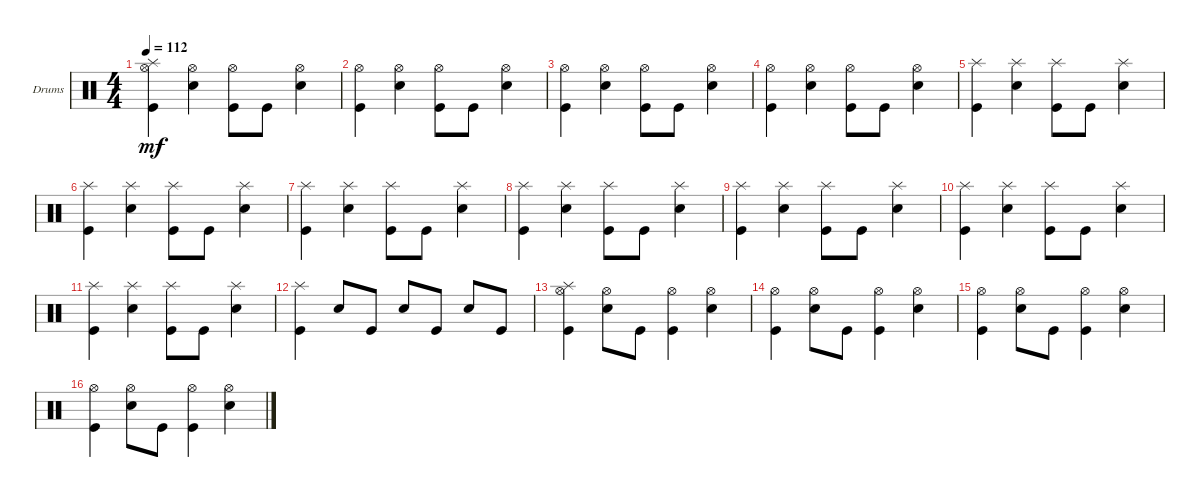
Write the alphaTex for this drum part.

\defaultSystemsLayout 4
\bracketExtendMode groupsimilarinstruments
\firstSystemTrackNameOrientation horizontal
\otherSystemsTrackNameOrientation horizontal
\track ("Drumkit" "Drums") {instrument percussion}
\staff {score}
\articulation defaults
\ts (4 4)
\tempo 112
\clef neutral
\ks c
("Kick (hit)" "Hi-Hat (open)" "Splash (hit)").4{dy mf} ("Hi-Hat (open)" "Snare (hit) 2").4 ("Hi-Hat (open)" "Kick (hit)").8 "Kick (hit)".8 ("Hi-Hat (open)" "Snare (hit) 2").4 |
("Kick (hit)" "Hi-Hat (open)").4 ("Hi-Hat (open)" "Snare (hit) 2").4 ("Hi-Hat (open)" "Kick (hit)").8 "Kick (hit)".8 ("Hi-Hat (open)" "Snare (hit) 2").4 |
("Kick (hit)" "Hi-Hat (open)").4 ("Hi-Hat (open)" "Snare (hit) 2").4 ("Hi-Hat (open)" "Kick (hit)").8 "Kick (hit)".8 ("Hi-Hat (open)" "Snare (hit) 2").4 |
("Kick (hit)" "Hi-Hat (open)").4 ("Hi-Hat (open)" "Snare (hit) 2").4 ("Hi-Hat (open)" "Kick (hit)").8 "Kick (hit)".8 ("Hi-Hat (open)" "Snare (hit) 2").4 |
("Kick (hit)" "Splash (hit)").4 ("Snare (hit) 2" "Splash (hit)").4 ("Kick (hit)" "Splash (hit)").8 "Kick (hit)".8 ("Snare (hit) 2" "Splash (hit)").4 |
("Kick (hit)" "Splash (hit)").4 ("Snare (hit) 2" "Splash (hit)").4 ("Kick (hit)" "Splash (hit)").8 "Kick (hit)".8 ("Snare (hit) 2" "Splash (hit)").4 |
("Kick (hit)" "Splash (hit)").4 ("Snare (hit) 2" "Splash (hit)").4 ("Kick (hit)" "Splash (hit)").8 "Kick (hit)".8 ("Snare (hit) 2" "Splash (hit)").4 |
("Kick (hit)" "Splash (hit)").4 ("Snare (hit) 2" "Splash (hit)").4 ("Kick (hit)" "Splash (hit)").8 "Kick (hit)".8 ("Snare (hit) 2" "Splash (hit)").4 |
("Kick (hit)" "Splash (hit)").4 ("Snare (hit) 2" "Splash (hit)").4 ("Kick (hit)" "Splash (hit)").8 "Kick (hit)".8 ("Snare (hit) 2" "Splash (hit)").4 |
("Kick (hit)" "Splash (hit)").4 ("Snare (hit) 2" "Splash (hit)").4 ("Kick (hit)" "Splash (hit)").8 "Kick (hit)".8 ("Snare (hit) 2" "Splash (hit)").4 |
("Kick (hit)" "Splash (hit)").4 ("Snare (hit) 2" "Splash (hit)").4 ("Kick (hit)" "Splash (hit)").8 "Kick (hit)".8 ("Snare (hit) 2" "Splash (hit)").4 |
("Kick (hit)" "Splash (hit)").4 "Snare (hit) 2".8 "Kick (hit)".8 "Snare (hit) 2".8 "Kick (hit)".8 "Snare (hit) 2".8 "Kick (hit)".8 |
("Kick (hit)" "Hi-Hat (open)" "Splash (hit)").4 ("Snare (hit) 2" "Hi-Hat (open)").8 "Kick (hit)".8 ("Kick (hit)" "Hi-Hat (open)").4 ("Snare (hit) 2" "Hi-Hat (open)").4 |
("Kick (hit)" "Hi-Hat (open)").4 ("Snare (hit) 2" "Hi-Hat (open)").8 "Kick (hit)".8 ("Kick (hit)" "Hi-Hat (open)").4 ("Snare (hit) 2" "Hi-Hat (open)").4 |
("Kick (hit)" "Hi-Hat (open)").4 ("Snare (hit) 2" "Hi-Hat (open)").8 "Kick (hit)".8 ("Kick (hit)" "Hi-Hat (open)").4 ("Snare (hit) 2" "Hi-Hat (open)").4 |
("Kick (hit)" "Hi-Hat (open)").4 ("Snare (hit) 2" "Hi-Hat (open)").8 "Kick (hit)".8 ("Kick (hit)" "Hi-Hat (open)").4 ("Snare (hit) 2" "Hi-Hat (open)").4
